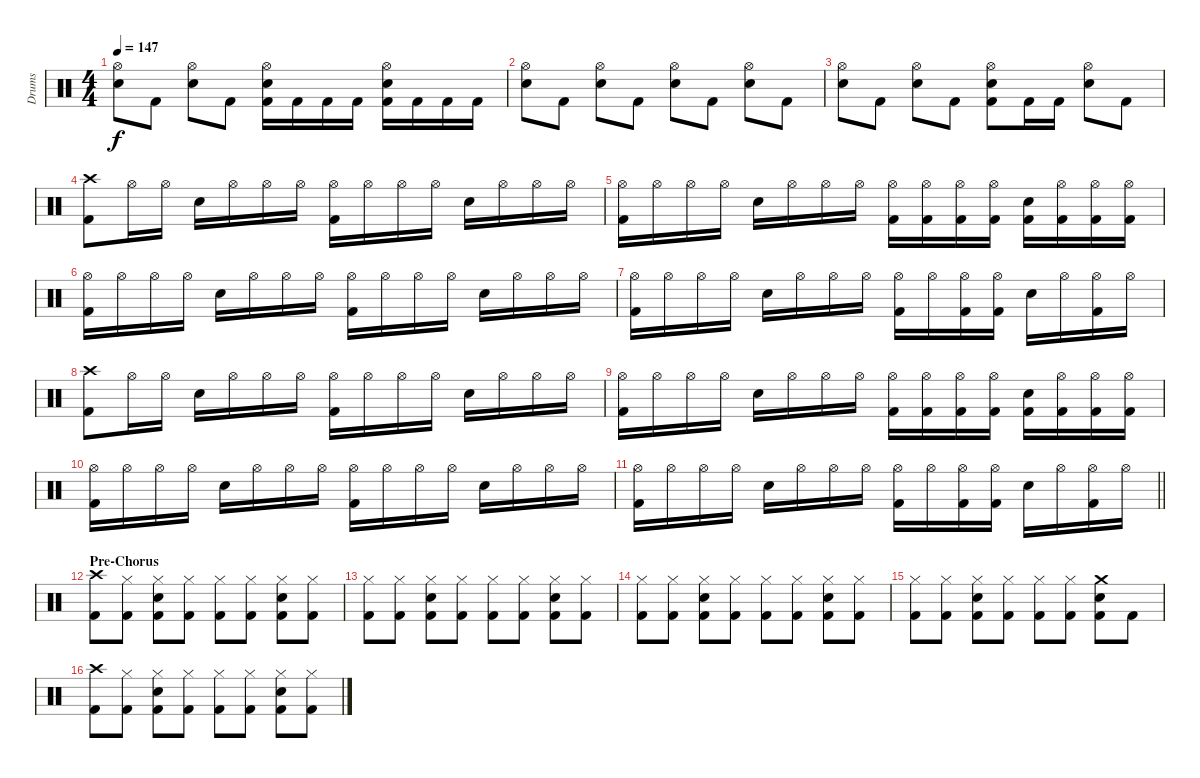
\track ("Drums" "Drums") {instrument percussion}
\staff {score}
\articulation defaults
\ts (4 4)
\tempo 147
\clef neutral
\ks c
("Hi-Hat (open)" "Electric Snare (hit)").8{dy f} "Kick (hit) 2".8 ("Hi-Hat (open)" "Electric Snare (hit)").8 "Kick (hit) 2".8 ("Hi-Hat (open)" "Electric Snare (hit)" "Kick (hit) 2").16 "Kick (hit) 2".16 "Kick (hit) 2".16 "Kick (hit) 2".16 ("Hi-Hat (open)" "Electric Snare (hit)" "Kick (hit) 2").16 "Kick (hit) 2".16 "Kick (hit) 2".16 "Kick (hit) 2".16 |
("Hi-Hat (open)" "Electric Snare (hit)").8 "Kick (hit) 2".8 ("Hi-Hat (open)" "Electric Snare (hit)").8 "Kick (hit) 2".8 ("Hi-Hat (open)" "Electric Snare (hit)").8 "Kick (hit) 2".8 ("Hi-Hat (open)" "Electric Snare (hit)").8 "Kick (hit) 2".8 |
("Hi-Hat (open)" "Electric Snare (hit)").8 "Kick (hit) 2".8 ("Hi-Hat (open)" "Electric Snare (hit)").8 "Kick (hit) 2".8 ("Hi-Hat (open)" "Electric Snare (hit)" "Kick (hit) 2").8 "Kick (hit) 2".16 "Kick (hit) 2".16 ("Hi-Hat (open)" "Electric Snare (hit)").8 "Kick (hit) 2".8 |
("Crash high (hit)" "Kick (hit) 2").8 "Hi-Hat (open)".16 "Hi-Hat (open)".16 "Electric Snare (hit)".16 "Hi-Hat (open)".16 "Hi-Hat (open)".16 "Hi-Hat (open)".16 ("Hi-Hat (open)" "Kick (hit) 2").16 "Hi-Hat (open)".16 "Hi-Hat (open)".16 "Hi-Hat (open)".16 "Electric Snare (hit)".16 "Hi-Hat (open)".16 "Hi-Hat (open)".16 "Hi-Hat (open)".16 |
("Hi-Hat (open)" "Kick (hit) 2").16 "Hi-Hat (open)".16 "Hi-Hat (open)".16 "Hi-Hat (open)".16 "Electric Snare (hit)".16 "Hi-Hat (open)".16 "Hi-Hat (open)".16 "Hi-Hat (open)".16 ("Hi-Hat (open)" "Kick (hit) 2").16 ("Hi-Hat (open)" "Kick (hit) 2").16 ("Hi-Hat (open)" "Kick (hit) 2").16 ("Hi-Hat (open)" "Kick (hit) 2").16 ("Electric Snare (hit)" "Kick (hit) 2").16 ("Hi-Hat (open)" "Kick (hit) 2").16 ("Hi-Hat (open)" "Kick (hit) 2").16 ("Hi-Hat (open)" "Kick (hit) 2").16 |
("Hi-Hat (open)" "Kick (hit) 2").16 "Hi-Hat (open)".16 "Hi-Hat (open)".16 "Hi-Hat (open)".16 "Electric Snare (hit)".16 "Hi-Hat (open)".16 "Hi-Hat (open)".16 "Hi-Hat (open)".16 ("Hi-Hat (open)" "Kick (hit) 2").16 "Hi-Hat (open)".16 "Hi-Hat (open)".16 "Hi-Hat (open)".16 "Electric Snare (hit)".16 "Hi-Hat (open)".16 "Hi-Hat (open)".16 "Hi-Hat (open)".16 |
("Hi-Hat (open)" "Kick (hit) 2").16 "Hi-Hat (open)".16 "Hi-Hat (open)".16 "Hi-Hat (open)".16 "Electric Snare (hit)".16 "Hi-Hat (open)".16 "Hi-Hat (open)".16 "Hi-Hat (open)".16 ("Hi-Hat (open)" "Kick (hit) 2").16 "Hi-Hat (open)".16 ("Hi-Hat (open)" "Kick (hit) 2").16 ("Hi-Hat (open)" "Kick (hit) 2").16 "Electric Snare (hit)".16 "Hi-Hat (open)".16 ("Hi-Hat (open)" "Kick (hit) 2").16 "Hi-Hat (open)".16 |
("Crash high (hit)" "Kick (hit) 2").8 "Hi-Hat (open)".16 "Hi-Hat (open)".16 "Electric Snare (hit)".16 "Hi-Hat (open)".16 "Hi-Hat (open)".16 "Hi-Hat (open)".16 ("Hi-Hat (open)" "Kick (hit) 2").16 "Hi-Hat (open)".16 "Hi-Hat (open)".16 "Hi-Hat (open)".16 "Electric Snare (hit)".16 "Hi-Hat (open)".16 "Hi-Hat (open)".16 "Hi-Hat (open)".16 |
("Hi-Hat (open)" "Kick (hit) 2").16 "Hi-Hat (open)".16 "Hi-Hat (open)".16 "Hi-Hat (open)".16 "Electric Snare (hit)".16 "Hi-Hat (open)".16 "Hi-Hat (open)".16 "Hi-Hat (open)".16 ("Hi-Hat (open)" "Kick (hit) 2").16 ("Hi-Hat (open)" "Kick (hit) 2").16 ("Hi-Hat (open)" "Kick (hit) 2").16 ("Hi-Hat (open)" "Kick (hit) 2").16 ("Electric Snare (hit)" "Kick (hit) 2").16 ("Hi-Hat (open)" "Kick (hit) 2").16 ("Hi-Hat (open)" "Kick (hit) 2").16 ("Hi-Hat (open)" "Kick (hit) 2").16 |
("Hi-Hat (open)" "Kick (hit) 2").16 "Hi-Hat (open)".16 "Hi-Hat (open)".16 "Hi-Hat (open)".16 "Electric Snare (hit)".16 "Hi-Hat (open)".16 "Hi-Hat (open)".16 "Hi-Hat (open)".16 ("Hi-Hat (open)" "Kick (hit) 2").16 "Hi-Hat (open)".16 "Hi-Hat (open)".16 "Hi-Hat (open)".16 "Electric Snare (hit)".16 "Hi-Hat (open)".16 "Hi-Hat (open)".16 "Hi-Hat (open)".16 |
\barLineRight lightlight
("Hi-Hat (open)" "Kick (hit) 2").16 "Hi-Hat (open)".16 "Hi-Hat (open)".16 "Hi-Hat (open)".16 "Electric Snare (hit)".16 "Hi-Hat (open)".16 "Hi-Hat (open)".16 "Hi-Hat (open)".16 ("Hi-Hat (open)" "Kick (hit) 2").16 "Hi-Hat (open)".16 ("Hi-Hat (open)" "Kick (hit) 2").16 ("Hi-Hat (open)" "Kick (hit) 2").16 "Electric Snare (hit)".16 "Hi-Hat (open)".16 ("Hi-Hat (open)" "Kick (hit) 2").16 "Hi-Hat (open)".16 |
\section ("" "Pre-Chorus")
("Crash high (hit)" "Kick (hit) 2").8 ("Hi-Hat (closed)" "Kick (hit) 2").8 ("Hi-Hat (closed)" "Electric Snare (hit)" "Kick (hit) 2").8 ("Hi-Hat (closed)" "Kick (hit) 2").8 ("Hi-Hat (closed)" "Kick (hit) 2").8 ("Hi-Hat (closed)" "Kick (hit) 2").8 ("Hi-Hat (closed)" "Electric Snare (hit)" "Kick (hit) 2").8 ("Hi-Hat (closed)" "Kick (hit) 2").8 |
("Hi-Hat (closed)" "Kick (hit) 2").8 ("Hi-Hat (closed)" "Kick (hit) 2").8 ("Hi-Hat (closed)" "Electric Snare (hit)" "Kick (hit) 2").8 ("Hi-Hat (closed)" "Kick (hit) 2").8 ("Hi-Hat (closed)" "Kick (hit) 2").8 ("Hi-Hat (closed)" "Kick (hit) 2").8 ("Hi-Hat (closed)" "Electric Snare (hit)" "Kick (hit) 2").8 ("Hi-Hat (closed)" "Kick (hit) 2").8 |
("Hi-Hat (closed)" "Kick (hit) 2").8 ("Hi-Hat (closed)" "Kick (hit) 2").8 ("Hi-Hat (closed)" "Electric Snare (hit)" "Kick (hit) 2").8 ("Hi-Hat (closed)" "Kick (hit) 2").8 ("Hi-Hat (closed)" "Kick (hit) 2").8 ("Hi-Hat (closed)" "Kick (hit) 2").8 ("Hi-Hat (closed)" "Electric Snare (hit)" "Kick (hit) 2").8 ("Hi-Hat (closed)" "Kick (hit) 2").8 |
("Hi-Hat (closed)" "Kick (hit) 2").8 ("Hi-Hat (closed)" "Kick (hit) 2").8 ("Hi-Hat (closed)" "Electric Snare (hit)" "Kick (hit) 2").8 ("Hi-Hat (closed)" "Kick (hit) 2").8 ("Hi-Hat (closed)" "Kick (hit) 2").8 ("Hi-Hat (closed)" "Kick (hit) 2").8 ("Crash medium (hit)" "Electric Snare (hit)" "Kick (hit) 2").8 "Kick (hit) 2".8 |
("Crash high (hit)" "Kick (hit) 2").8 ("Hi-Hat (closed)" "Kick (hit) 2").8 ("Hi-Hat (closed)" "Electric Snare (hit)" "Kick (hit) 2").8 ("Hi-Hat (closed)" "Kick (hit) 2").8 ("Hi-Hat (closed)" "Kick (hit) 2").8 ("Hi-Hat (closed)" "Kick (hit) 2").8 ("Hi-Hat (closed)" "Electric Snare (hit)" "Kick (hit) 2").8 ("Hi-Hat (closed)" "Kick (hit) 2").8
